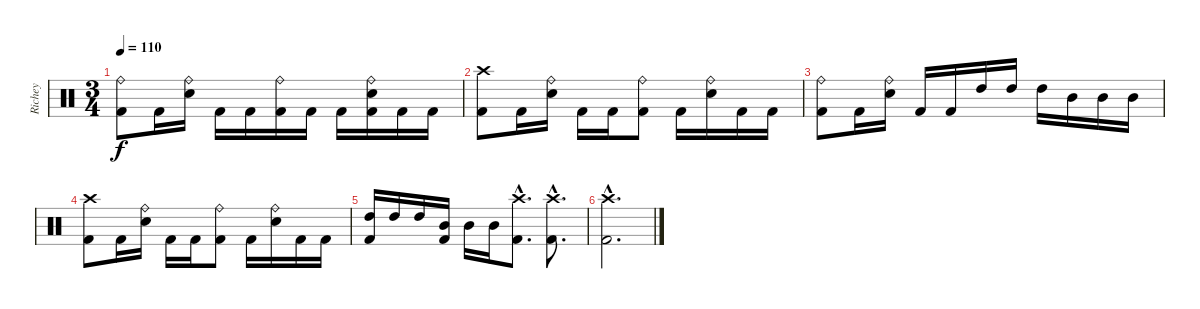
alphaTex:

\track ("Richey" "Richey") {instrument percussion}
\staff {score}
\articulation defaults
\ts (3 4)
\tempo 110
\clef neutral
\ks c
("Ride (bell)" "Kick (hit) 2").8{dy f} "Kick (hit) 2".16 ("Ride (bell)" "Snare (hit) 2").16 "Kick (hit) 2".16 "Kick (hit) 2".16 ("Ride (bell)" "Kick (hit) 2").16 "Kick (hit) 2".16 "Kick (hit) 2".16 ("Ride (bell)" "Snare (hit) 2" "Kick (hit) 2").16 "Kick (hit) 2".16 "Kick (hit) 2".16 |
("Crash high (hit)" "Kick (hit) 2").8 "Kick (hit) 2".16 ("Ride (bell)" "Snare (hit) 2").16 "Kick (hit) 2".16 "Kick (hit) 2".16 ("Ride (bell)" "Kick (hit) 2").8 "Kick (hit) 2".16 ("Ride (bell)" "Snare (hit) 2").16 "Kick (hit) 2".16 "Kick (hit) 2".16 |
("Ride (bell)" "Kick (hit) 2").8 "Kick (hit) 2".16 ("Ride (bell)" "Snare (hit) 2").16 "Kick (hit) 2".16 "Kick (hit) 2".16 "High Tom (hit)".16 "High Tom (hit)".16 "High Tom (hit)".16 "Mid Tom (hit)".16 "Mid Tom (hit)".16 "Mid Tom (hit)".16 |
("Crash high (hit)" "Kick (hit) 2").8 "Kick (hit) 2".16 ("Ride (bell)" "Snare (hit) 2").16 "Kick (hit) 2".16 "Kick (hit) 2".16 ("Ride (bell)" "Kick (hit) 2").8 "Kick (hit) 2".16 ("Ride (bell)" "Snare (hit) 2").16 "Kick (hit) 2".16 "Kick (hit) 2".16 |
("High Tom (hit)" "Kick (hit) 2").16 "High Tom (hit)".16 "High Tom (hit)".16 ("Mid Tom (hit)" "Kick (hit) 2").16 "Mid Tom (hit)".16 "Mid Tom (hit)".16 ("Crash high (hit)"{hac} "Kick (hit) 2"{hac}).8{d} ("Crash high (hit)"{hac} "Kick (hit) 2"{hac}).8{d} |
("Crash high (hit)"{hac} "Kick (hit) 2"{hac}).2{d}
